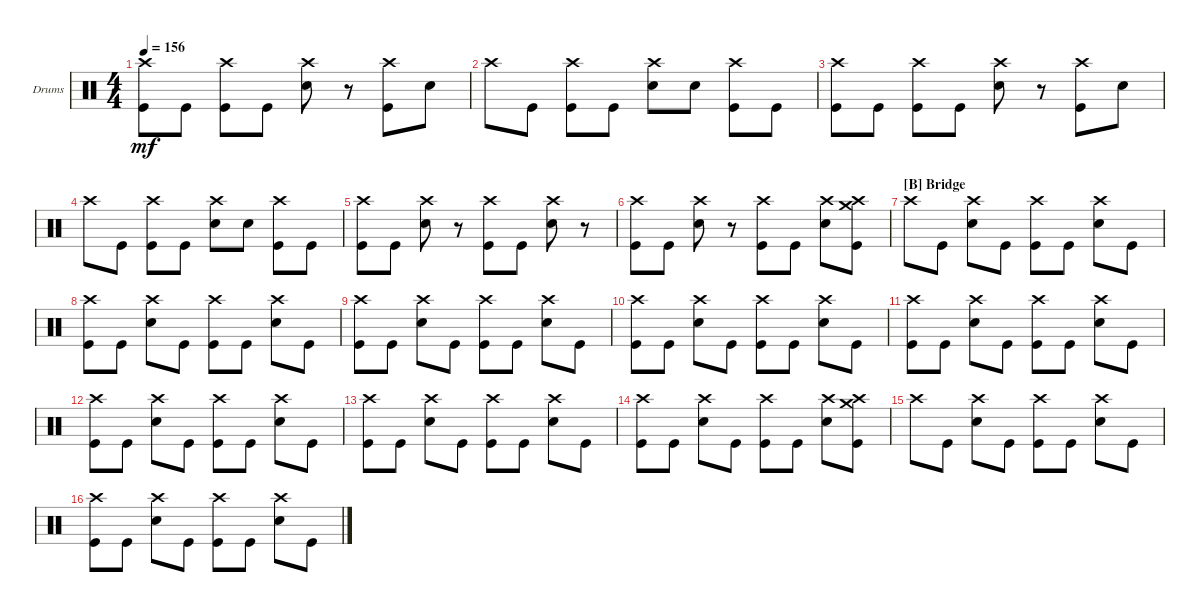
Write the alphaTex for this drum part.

\defaultSystemsLayout 4
\bracketExtendMode groupsimilarinstruments
\firstSystemTrackNameOrientation horizontal
\otherSystemsTrackNameOrientation horizontal
\track ("Drumkit" "Drums") {instrument percussion}
\staff {score}
\articulation defaults
\ts (4 4)
\tempo 156
\clef neutral
\ks c
("Kick (hit)" "Crash high (hit)").8{dy mf} "Kick (hit)".8 ("Kick (hit)" "Crash high (hit)").8 "Kick (hit)".8 ("Snare (hit) 2" "Crash high (hit)").8 r.8 ("Kick (hit)" "Crash high (hit)").8 "Snare (hit) 2".8 |
"Crash high (hit)".8 "Kick (hit)".8 ("Kick (hit)" "Crash high (hit)").8 "Kick (hit)".8 ("Snare (hit) 2" "Crash high (hit)").8 "Snare (hit) 2".8 ("Crash high (hit)" "Kick (hit)").8 "Kick (hit)".8 |
("Kick (hit)" "Crash high (hit)").8 "Kick (hit)".8 ("Kick (hit)" "Crash high (hit)").8 "Kick (hit)".8 ("Snare (hit) 2" "Crash high (hit)").8 r.8 ("Kick (hit)" "Crash high (hit)").8 "Snare (hit) 2".8 |
"Crash high (hit)".8 "Kick (hit)".8 ("Kick (hit)" "Crash high (hit)").8 "Kick (hit)".8 ("Snare (hit) 2" "Crash high (hit)").8 "Snare (hit) 2".8 ("Crash high (hit)" "Kick (hit)").8 "Kick (hit)".8 |
("Kick (hit)" "Crash high (hit)").8 "Kick (hit)".8 ("Snare (hit) 2" "Crash high (hit)").8 r.8 ("Kick (hit)" "Crash high (hit)").8 "Kick (hit)".8 ("Snare (hit) 2" "Crash high (hit)").8 r.8 |
("Kick (hit)" "Crash high (hit)").8 "Kick (hit)".8 ("Snare (hit) 2" "Crash high (hit)").8 r.8 ("Kick (hit)" "Crash high (hit)").8 "Kick (hit)".8 ("Snare (hit) 2" "Crash high (hit)").8 ("Kick (hit)" "Crash high (hit)" "Crash medium (hit)").8 |
\section ("B" "Bridge")
"Crash high (hit)".8 "Kick (hit)".8 ("Snare (hit) 2" "Crash high (hit)").8 "Kick (hit)".8 ("Kick (hit)" "Crash high (hit)").8 "Kick (hit)".8 ("Snare (hit) 2" "Crash high (hit)").8 "Kick (hit)".8 |
("Crash high (hit)" "Kick (hit)").8 "Kick (hit)".8 ("Snare (hit) 2" "Crash high (hit)").8 "Kick (hit)".8 ("Kick (hit)" "Crash high (hit)").8 "Kick (hit)".8 ("Snare (hit) 2" "Crash high (hit)").8 "Kick (hit)".8 |
("Crash high (hit)" "Kick (hit)").8 "Kick (hit)".8 ("Snare (hit) 2" "Crash high (hit)").8 "Kick (hit)".8 ("Kick (hit)" "Crash high (hit)").8 "Kick (hit)".8 ("Snare (hit) 2" "Crash high (hit)").8 "Kick (hit)".8 |
("Crash high (hit)" "Kick (hit)").8 "Kick (hit)".8 ("Snare (hit) 2" "Crash high (hit)").8 "Kick (hit)".8 ("Kick (hit)" "Crash high (hit)").8 "Kick (hit)".8 ("Snare (hit) 2" "Crash high (hit)").8 "Kick (hit)".8 |
("Crash high (hit)" "Kick (hit)").8 "Kick (hit)".8 ("Snare (hit) 2" "Crash high (hit)").8 "Kick (hit)".8 ("Kick (hit)" "Crash high (hit)").8 "Kick (hit)".8 ("Snare (hit) 2" "Crash high (hit)").8 "Kick (hit)".8 |
("Crash high (hit)" "Kick (hit)").8 "Kick (hit)".8 ("Snare (hit) 2" "Crash high (hit)").8 "Kick (hit)".8 ("Kick (hit)" "Crash high (hit)").8 "Kick (hit)".8 ("Snare (hit) 2" "Crash high (hit)").8 "Kick (hit)".8 |
("Crash high (hit)" "Kick (hit)").8 "Kick (hit)".8 ("Snare (hit) 2" "Crash high (hit)").8 "Kick (hit)".8 ("Kick (hit)" "Crash high (hit)").8 "Kick (hit)".8 ("Snare (hit) 2" "Crash high (hit)").8 "Kick (hit)".8 |
("Crash high (hit)" "Kick (hit)").8 "Kick (hit)".8 ("Snare (hit) 2" "Crash high (hit)").8 "Kick (hit)".8 ("Kick (hit)" "Crash high (hit)").8 "Kick (hit)".8 ("Snare (hit) 2" "Crash high (hit)").8 ("Kick (hit)" "Crash high (hit)" "Crash medium (hit)").8 |
"Crash high (hit)".8 "Kick (hit)".8 ("Snare (hit) 2" "Crash high (hit)").8 "Kick (hit)".8 ("Kick (hit)" "Crash high (hit)").8 "Kick (hit)".8 ("Snare (hit) 2" "Crash high (hit)").8 "Kick (hit)".8 |
("Crash high (hit)" "Kick (hit)").8 "Kick (hit)".8 ("Snare (hit) 2" "Crash high (hit)").8 "Kick (hit)".8 ("Kick (hit)" "Crash high (hit)").8 "Kick (hit)".8 ("Snare (hit) 2" "Crash high (hit)").8 "Kick (hit)".8
